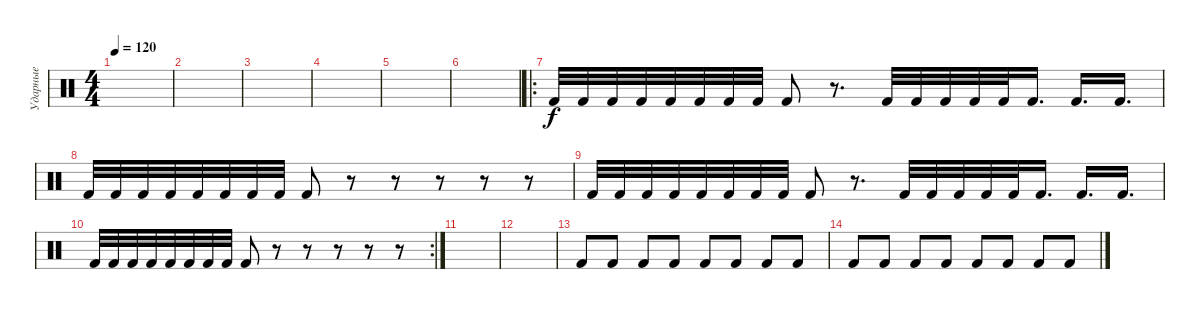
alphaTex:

\track ("Ударные" "Ударные") {instrument percussion}
\staff {score}
\articulation defaults
\ts (4 4)
\tempo 120
\clef neutral
\ks c
|
|
|
|
|
|
\ro "Kick (hit) 2".32 "Kick (hit) 2".32 "Kick (hit) 2".32 "Kick (hit) 2".32 "Kick (hit) 2".32 "Kick (hit) 2".32 "Kick (hit) 2".32 "Kick (hit) 2".32 "Kick (hit) 2".8
r.8{d} "Kick (hit) 2".32 "Kick (hit) 2".32 "Kick (hit) 2".32 "Kick (hit) 2".32 "Kick (hit) 2".32 "Kick (hit) 2".16{d} "Kick (hit) 2".16{d} "Kick (hit) 2".16{d} |
"Kick (hit) 2".32 "Kick (hit) 2".32 "Kick (hit) 2".32 "Kick (hit) 2".32 "Kick (hit) 2".32 "Kick (hit) 2".32 "Kick (hit) 2".32 "Kick (hit) 2".32 "Kick (hit) 2".8 r.8 r.8 r.8 r.8 r.8 |
"Kick (hit) 2".32 "Kick (hit) 2".32 "Kick (hit) 2".32 "Kick (hit) 2".32 "Kick (hit) 2".32 "Kick (hit) 2".32 "Kick (hit) 2".32 "Kick (hit) 2".32 "Kick (hit) 2".8 r.8{d} "Kick (hit) 2".32 "Kick (hit) 2".32 "Kick (hit) 2".32 "Kick (hit) 2".32 "Kick (hit) 2".32 "Kick (hit) 2".16{d} "Kick (hit) 2".16{d} "Kick (hit) 2".16{d} |
\rc 2 "Kick (hit) 2".32 "Kick (hit) 2".32 "Kick (hit) 2".32 "Kick (hit) 2".32 "Kick (hit) 2".32 "Kick (hit) 2".32 "Kick (hit) 2".32 "Kick (hit) 2".32 "Kick (hit) 2".8
r.8 r.8 r.8 r.8 r.8 |
|
|
"Kick (hit) 2".8 "Kick (hit) 2".8 "Kick (hit) 2".8 "Kick (hit) 2".8 "Kick (hit) 2".8 "Kick (hit) 2".8 "Kick (hit) 2".8 "Kick (hit) 2".8 |
"Kick (hit) 2".8 "Kick (hit) 2".8 "Kick (hit) 2".8 "Kick (hit) 2".8 "Kick (hit) 2".8 "Kick (hit) 2".8 "Kick (hit) 2".8 "Kick (hit) 2".8
